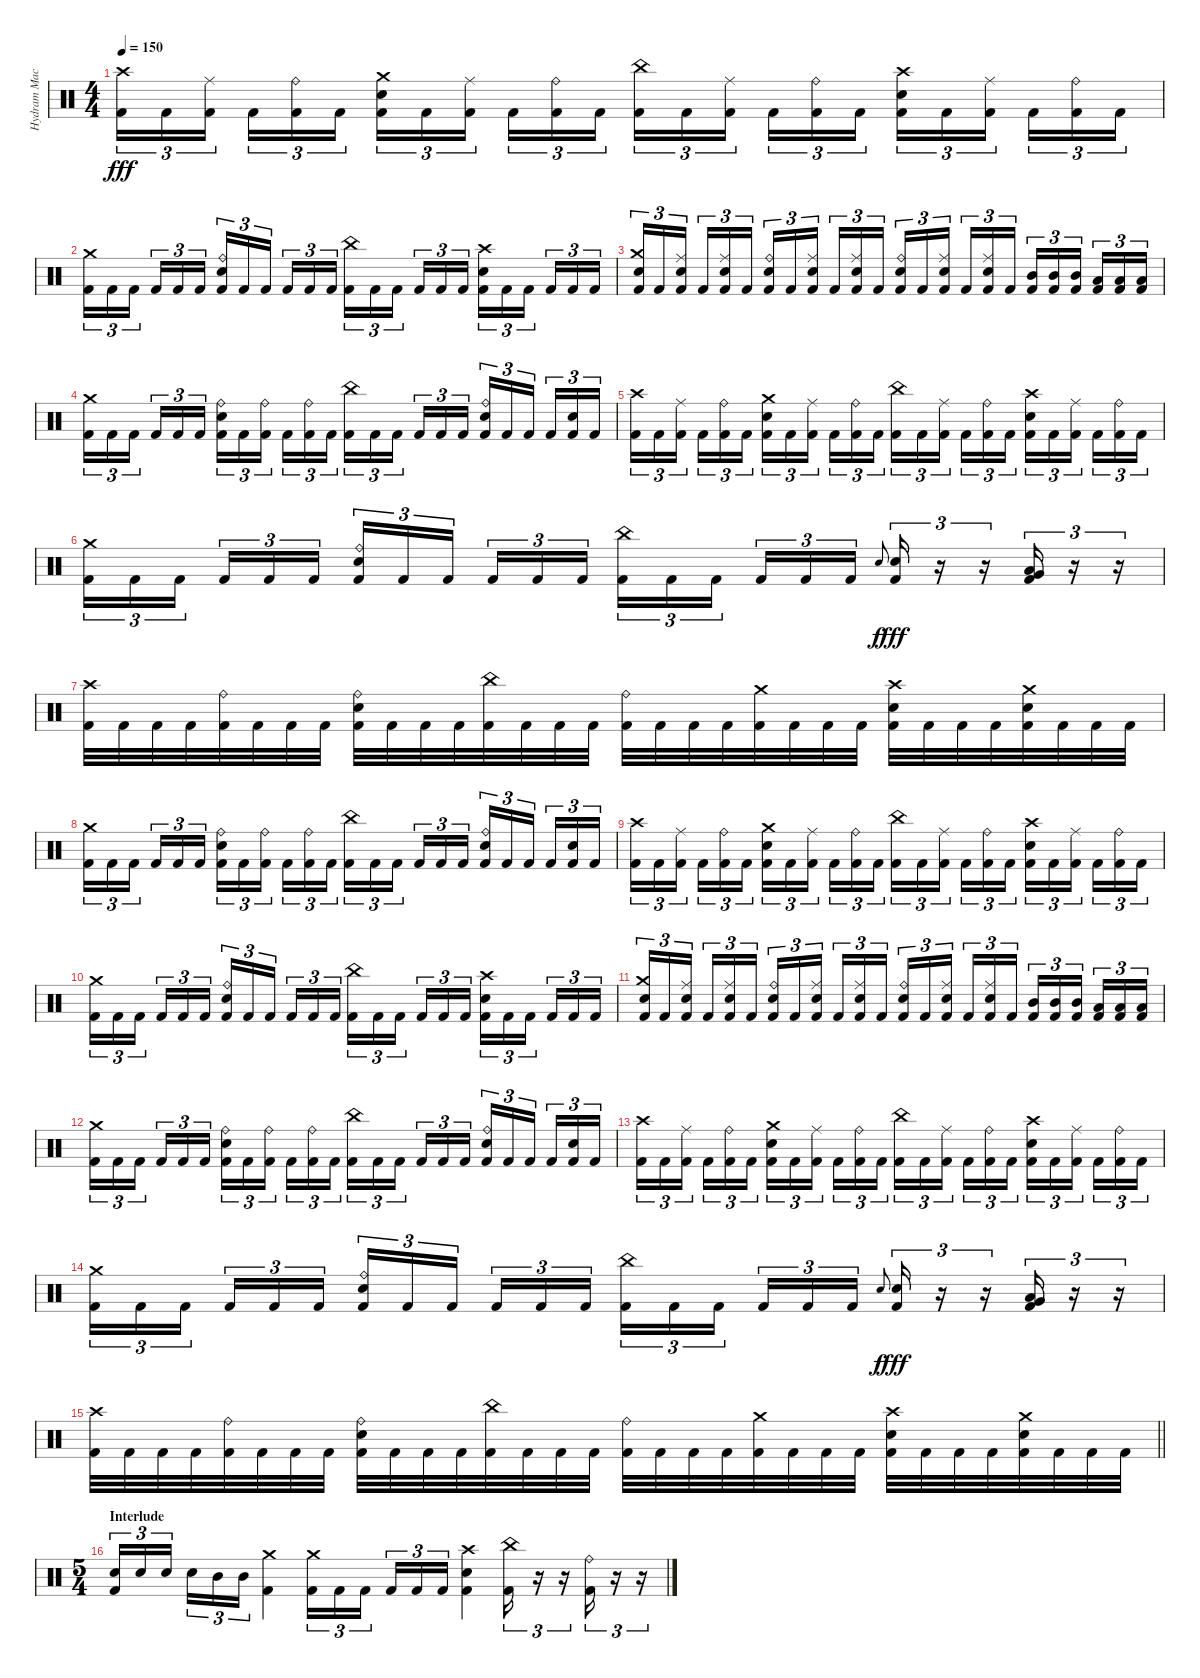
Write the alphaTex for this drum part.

\track ("Hydram Machine" "Hydram Mac") {instrument percussion}
\staff {score}
\articulation defaults
\ts (4 4)
\tempo 150
\clef neutral
\ks c
("Crash high (hit)" "Kick (hit) 2").16{tu (3 2) dy fff} "Kick (hit) 2".16{tu (3 2)} ("Ride (middle)" "Kick (hit) 2").16{tu (3 2) beam splitsecondary} "Kick (hit) 2".16{tu (3 2)} ("Ride (bell)" "Kick (hit) 2").16{tu (3 2)} "Kick (hit) 2".16{tu (3 2)} ("Crash medium (hit)" "Electric Snare (hit)" "Kick (hit) 2").16{tu (3 2)} "Kick (hit) 2".16{tu (3 2)} ("Ride (middle)" "Kick (hit) 2").16{tu (3 2) beam splitsecondary} "Kick (hit) 2".16{tu (3 2)} ("Ride (bell)" "Kick (hit) 2").16{tu (3 2)} "Kick (hit) 2".16{tu (3 2)} ("China (hit)" "Kick (hit) 2").16{tu (3 2)} "Kick (hit) 2".16{tu (3 2)} ("Ride (middle)" "Kick (hit) 2").16{tu (3 2) beam splitsecondary} "Kick (hit) 2".16{tu (3 2)} ("Ride (bell)" "Kick (hit) 2").16{tu (3 2)} "Kick (hit) 2".16{tu (3 2)} ("Crash high (hit)" "Electric Snare (hit)" "Kick (hit) 2").16{tu (3 2)} "Kick (hit) 2".16{tu (3 2)} ("Ride (middle)" "Kick (hit) 2").16{tu (3 2) beam splitsecondary} "Kick (hit) 2".16{tu (3 2)} ("Ride (bell)" "Kick (hit) 2").16{tu (3 2)} "Kick (hit) 2".16{tu (3 2)} |
("Crash medium (hit)" "Kick (hit) 2").16{tu (3 2)} "Kick (hit) 2".16{tu (3 2)} "Kick (hit) 2".16{tu (3 2) beam splitsecondary} "Kick (hit) 2".16{tu (3 2)} "Kick (hit) 2".16{tu (3 2)} "Kick (hit) 2".16{tu (3 2)} ("Ride (bell)" "Electric Snare (hit)" "Kick (hit) 2").16{tu (3 2)} "Kick (hit) 2".16{tu (3 2)} "Kick (hit) 2".16{tu (3 2) beam splitsecondary} "Kick (hit) 2".16{tu (3 2)} "Kick (hit) 2".16{tu (3 2)} "Kick (hit) 2".16{tu (3 2)} ("China (hit)" "Kick (hit) 2").16{tu (3 2)} "Kick (hit) 2".16{tu (3 2)} "Kick (hit) 2".16{tu (3 2) beam splitsecondary} "Kick (hit) 2".16{tu (3 2)} "Kick (hit) 2".16{tu (3 2)} "Kick (hit) 2".16{tu (3 2)} ("Crash high (hit)" "Electric Snare (hit)" "Kick (hit) 2").16{tu (3 2)} "Kick (hit) 2".16{tu (3 2)} "Kick (hit) 2".16{tu (3 2) beam splitsecondary} "Kick (hit) 2".16{tu (3 2)} "Kick (hit) 2".16{tu (3 2)} "Kick (hit) 2".16{tu (3 2)} |
("Crash medium (hit)" "Electric Snare (hit)" "Kick (hit) 2").16{tu (3 2)} "Kick (hit) 2".16{tu (3 2)} ("Ride (middle)" "Electric Snare (hit)" "Kick (hit) 2").16{tu (3 2) beam splitsecondary} "Kick (hit) 2".16{tu (3 2)} ("Ride (middle)" "Electric Snare (hit)" "Kick (hit) 2").16{tu (3 2)} "Kick (hit) 2".16{tu (3 2)} ("Ride (bell)" "Electric Snare (hit)" "Kick (hit) 2").16{tu (3 2)} "Kick (hit) 2".16{tu (3 2)} ("Ride (middle)" "Electric Snare (hit)" "Kick (hit) 2").16{tu (3 2) beam splitsecondary} "Kick (hit) 2".16{tu (3 2)} ("Ride (middle)" "Electric Snare (hit)" "Kick (hit) 2").16{tu (3 2)} "Kick (hit) 2".16{tu (3 2)} ("Ride (bell)" "Electric Snare (hit)" "Kick (hit) 2").16{tu (3 2)} "Kick (hit) 2".16{tu (3 2)} ("Ride (middle)" "Electric Snare (hit)" "Kick (hit) 2").16{tu (3 2) beam splitsecondary} "Kick (hit) 2".16{tu (3 2)} ("Ride (middle)" "Electric Snare (hit)" "Kick (hit) 2").16{tu (3 2)} "Kick (hit) 2".16{tu (3 2)} ("Mid Tom (hit)" "Kick (hit) 2").16{tu (3 2)} ("Mid Tom (hit)" "Kick (hit) 2").16{tu (3 2)} ("Mid Tom (hit)" "Kick (hit) 2").16{tu (3 2) beam splitsecondary} ("Low Tom (hit)" "Kick (hit) 2").16{tu (3 2)} ("Low Tom (hit)" "Kick (hit) 2").16{tu (3 2)} ("Low Tom (hit)" "Kick (hit) 2").16{tu (3 2)} |
("Crash medium (hit)" "Kick (hit) 2").16{tu (3 2)} "Kick (hit) 2".16{tu (3 2)} "Kick (hit) 2".16{tu (3 2) beam splitsecondary} "Kick (hit) 2".16{tu (3 2)} "Kick (hit) 2".16{tu (3 2)} "Kick (hit) 2".16{tu (3 2)} ("Ride (bell)" "Electric Snare (hit)" "Kick (hit) 2").16{tu (3 2)} "Kick (hit) 2".16{tu (3 2)} ("Ride (bell)" "Kick (hit) 2").16{tu (3 2) beam splitsecondary} "Kick (hit) 2".16{tu (3 2)} ("Ride (bell)" "Kick (hit) 2").16{tu (3 2)} "Kick (hit) 2".16{tu (3 2)} ("China (hit)" "Kick (hit) 2").16{tu (3 2)} "Kick (hit) 2".16{tu (3 2)} "Kick (hit) 2".16{tu (3 2) beam splitsecondary} "Kick (hit) 2".16{tu (3 2)} "Kick (hit) 2".16{tu (3 2)} "Kick (hit) 2".16{tu (3 2)} ("Ride (bell)" "Electric Snare (hit)" "Kick (hit) 2").16{tu (3 2)} "Kick (hit) 2".16{tu (3 2)} "Kick (hit) 2".16{tu (3 2) beam splitsecondary} "Kick (hit) 2".16{tu (3 2)} ("Electric Snare (hit)" "Kick (hit) 2").16{tu (3 2)} "Kick (hit) 2".16{tu (3 2)} |
("Crash high (hit)" "Kick (hit) 2").16{tu (3 2)} "Kick (hit) 2".16{tu (3 2)} ("Ride (middle)" "Kick (hit) 2").16{tu (3 2) beam splitsecondary} "Kick (hit) 2".16{tu (3 2)} ("Ride (bell)" "Kick (hit) 2").16{tu (3 2)} "Kick (hit) 2".16{tu (3 2)} ("Crash medium (hit)" "Electric Snare (hit)" "Kick (hit) 2").16{tu (3 2)} "Kick (hit) 2".16{tu (3 2)} ("Ride (middle)" "Kick (hit) 2").16{tu (3 2) beam splitsecondary} "Kick (hit) 2".16{tu (3 2)} ("Ride (bell)" "Kick (hit) 2").16{tu (3 2)} "Kick (hit) 2".16{tu (3 2)} ("China (hit)" "Kick (hit) 2").16{tu (3 2)} "Kick (hit) 2".16{tu (3 2)} ("Ride (middle)" "Kick (hit) 2").16{tu (3 2) beam splitsecondary} "Kick (hit) 2".16{tu (3 2)} ("Ride (bell)" "Kick (hit) 2").16{tu (3 2)} "Kick (hit) 2".16{tu (3 2)} ("Crash high (hit)" "Electric Snare (hit)" "Kick (hit) 2").16{tu (3 2)} "Kick (hit) 2".16{tu (3 2)} ("Ride (middle)" "Kick (hit) 2").16{tu (3 2) beam splitsecondary} "Kick (hit) 2".16{tu (3 2)} ("Ride (bell)" "Kick (hit) 2").16{tu (3 2)} "Kick (hit) 2".16{tu (3 2)} |
("Crash medium (hit)" "Kick (hit) 2").16{tu (3 2)} "Kick (hit) 2".16{tu (3 2)} "Kick (hit) 2".16{tu (3 2) beam splitsecondary} "Kick (hit) 2".16{tu (3 2)} "Kick (hit) 2".16{tu (3 2)} "Kick (hit) 2".16{tu (3 2)} ("Ride (bell)" "Electric Snare (hit)" "Kick (hit) 2").16{tu (3 2)} "Kick (hit) 2".16{tu (3 2)} "Kick (hit) 2".16{tu (3 2) beam splitsecondary} "Kick (hit) 2".16{tu (3 2)} "Kick (hit) 2".16{tu (3 2)} "Kick (hit) 2".16{tu (3 2)} ("China (hit)" "Kick (hit) 2").16{tu (3 2)} "Kick (hit) 2".16{tu (3 2)} "Kick (hit) 2".16{tu (3 2) beam splitsecondary} "Kick (hit) 2".16{tu (3 2)} "Kick (hit) 2".16{tu (3 2)} "Kick (hit) 2".16{tu (3 2)} "Electric Snare (hit)".8{gr onbeat dy f} ("Electric Snare (hit)" "Kick (hit) 2").16{tu (3 2) dy fff} r.16{tu (3 2)} r.16{tu (3 2)} ("Low Tom (hit)" "Very Low Tom (hit)" "Kick (hit) 2").16{tu (3 2)} r.16{tu (3 2)} r.16{tu (3 2)} |
("Crash high (hit)" "Kick (hit) 2").32 "Kick (hit) 2".32 "Kick (hit) 2".32 "Kick (hit) 2".32 ("Ride (bell)" "Kick (hit) 2").32 "Kick (hit) 2".32 "Kick (hit) 2".32 "Kick (hit) 2".32 ("Ride (bell)" "Electric Snare (hit)" "Kick (hit) 2").32 "Kick (hit) 2".32 "Kick (hit) 2".32 "Kick (hit) 2".32 ("China (hit)" "Kick (hit) 2").32 "Kick (hit) 2".32 "Kick (hit) 2".32 "Kick (hit) 2".32 ("Ride (bell)" "Kick (hit) 2").32 "Kick (hit) 2".32 "Kick (hit) 2".32 "Kick (hit) 2".32 ("Crash medium (hit)" "Kick (hit) 2").32 "Kick (hit) 2".32 "Kick (hit) 2".32 "Kick (hit) 2".32 ("Crash high (hit)" "Electric Snare (hit)" "Kick (hit) 2").32 "Kick (hit) 2".32 "Kick (hit) 2".32 "Kick (hit) 2".32 ("Crash medium (hit)" "Electric Snare (hit)" "Kick (hit) 2").32 "Kick (hit) 2".32 "Kick (hit) 2".32 "Kick (hit) 2".32 |
("Crash medium (hit)" "Kick (hit) 2").16{tu (3 2)} "Kick (hit) 2".16{tu (3 2)} "Kick (hit) 2".16{tu (3 2) beam splitsecondary} "Kick (hit) 2".16{tu (3 2)} "Kick (hit) 2".16{tu (3 2)} "Kick (hit) 2".16{tu (3 2)} ("Ride (bell)" "Electric Snare (hit)" "Kick (hit) 2").16{tu (3 2)} "Kick (hit) 2".16{tu (3 2)} ("Ride (bell)" "Kick (hit) 2").16{tu (3 2) beam splitsecondary} "Kick (hit) 2".16{tu (3 2)} ("Ride (bell)" "Kick (hit) 2").16{tu (3 2)} "Kick (hit) 2".16{tu (3 2)} ("China (hit)" "Kick (hit) 2").16{tu (3 2)} "Kick (hit) 2".16{tu (3 2)} "Kick (hit) 2".16{tu (3 2) beam splitsecondary} "Kick (hit) 2".16{tu (3 2)} "Kick (hit) 2".16{tu (3 2)} "Kick (hit) 2".16{tu (3 2)} ("Ride (bell)" "Electric Snare (hit)" "Kick (hit) 2").16{tu (3 2)} "Kick (hit) 2".16{tu (3 2)} "Kick (hit) 2".16{tu (3 2) beam splitsecondary} "Kick (hit) 2".16{tu (3 2)} ("Electric Snare (hit)" "Kick (hit) 2").16{tu (3 2)} "Kick (hit) 2".16{tu (3 2)} |
("Crash high (hit)" "Kick (hit) 2").16{tu (3 2)} "Kick (hit) 2".16{tu (3 2)} ("Ride (middle)" "Kick (hit) 2").16{tu (3 2) beam splitsecondary} "Kick (hit) 2".16{tu (3 2)} ("Ride (bell)" "Kick (hit) 2").16{tu (3 2)} "Kick (hit) 2".16{tu (3 2)} ("Crash medium (hit)" "Electric Snare (hit)" "Kick (hit) 2").16{tu (3 2)} "Kick (hit) 2".16{tu (3 2)} ("Ride (middle)" "Kick (hit) 2").16{tu (3 2) beam splitsecondary} "Kick (hit) 2".16{tu (3 2)} ("Ride (bell)" "Kick (hit) 2").16{tu (3 2)} "Kick (hit) 2".16{tu (3 2)} ("China (hit)" "Kick (hit) 2").16{tu (3 2)} "Kick (hit) 2".16{tu (3 2)} ("Ride (middle)" "Kick (hit) 2").16{tu (3 2) beam splitsecondary} "Kick (hit) 2".16{tu (3 2)} ("Ride (bell)" "Kick (hit) 2").16{tu (3 2)} "Kick (hit) 2".16{tu (3 2)} ("Crash high (hit)" "Electric Snare (hit)" "Kick (hit) 2").16{tu (3 2)} "Kick (hit) 2".16{tu (3 2)} ("Ride (middle)" "Kick (hit) 2").16{tu (3 2) beam splitsecondary} "Kick (hit) 2".16{tu (3 2)} ("Ride (bell)" "Kick (hit) 2").16{tu (3 2)} "Kick (hit) 2".16{tu (3 2)} |
("Crash medium (hit)" "Kick (hit) 2").16{tu (3 2)} "Kick (hit) 2".16{tu (3 2)} "Kick (hit) 2".16{tu (3 2) beam splitsecondary} "Kick (hit) 2".16{tu (3 2)} "Kick (hit) 2".16{tu (3 2)} "Kick (hit) 2".16{tu (3 2)} ("Ride (bell)" "Electric Snare (hit)" "Kick (hit) 2").16{tu (3 2)} "Kick (hit) 2".16{tu (3 2)} "Kick (hit) 2".16{tu (3 2) beam splitsecondary} "Kick (hit) 2".16{tu (3 2)} "Kick (hit) 2".16{tu (3 2)} "Kick (hit) 2".16{tu (3 2)} ("China (hit)" "Kick (hit) 2").16{tu (3 2)} "Kick (hit) 2".16{tu (3 2)} "Kick (hit) 2".16{tu (3 2) beam splitsecondary} "Kick (hit) 2".16{tu (3 2)} "Kick (hit) 2".16{tu (3 2)} "Kick (hit) 2".16{tu (3 2)} ("Crash high (hit)" "Electric Snare (hit)" "Kick (hit) 2").16{tu (3 2)} "Kick (hit) 2".16{tu (3 2)} "Kick (hit) 2".16{tu (3 2) beam splitsecondary} "Kick (hit) 2".16{tu (3 2)} "Kick (hit) 2".16{tu (3 2)} "Kick (hit) 2".16{tu (3 2)} |
("Crash medium (hit)" "Electric Snare (hit)" "Kick (hit) 2").16{tu (3 2)} "Kick (hit) 2".16{tu (3 2)} ("Ride (middle)" "Electric Snare (hit)" "Kick (hit) 2").16{tu (3 2) beam splitsecondary} "Kick (hit) 2".16{tu (3 2)} ("Ride (middle)" "Electric Snare (hit)" "Kick (hit) 2").16{tu (3 2)} "Kick (hit) 2".16{tu (3 2)} ("Ride (bell)" "Electric Snare (hit)" "Kick (hit) 2").16{tu (3 2)} "Kick (hit) 2".16{tu (3 2)} ("Ride (middle)" "Electric Snare (hit)" "Kick (hit) 2").16{tu (3 2) beam splitsecondary} "Kick (hit) 2".16{tu (3 2)} ("Ride (middle)" "Electric Snare (hit)" "Kick (hit) 2").16{tu (3 2)} "Kick (hit) 2".16{tu (3 2)} ("Ride (bell)" "Electric Snare (hit)" "Kick (hit) 2").16{tu (3 2)} "Kick (hit) 2".16{tu (3 2)} ("Ride (middle)" "Electric Snare (hit)" "Kick (hit) 2").16{tu (3 2) beam splitsecondary} "Kick (hit) 2".16{tu (3 2)} ("Ride (middle)" "Electric Snare (hit)" "Kick (hit) 2").16{tu (3 2)} "Kick (hit) 2".16{tu (3 2)} ("Mid Tom (hit)" "Kick (hit) 2").16{tu (3 2)} ("Mid Tom (hit)" "Kick (hit) 2").16{tu (3 2)} ("Mid Tom (hit)" "Kick (hit) 2").16{tu (3 2) beam splitsecondary} ("Low Tom (hit)" "Kick (hit) 2").16{tu (3 2)} ("Low Tom (hit)" "Kick (hit) 2").16{tu (3 2)} ("Low Tom (hit)" "Kick (hit) 2").16{tu (3 2)} |
("Crash medium (hit)" "Kick (hit) 2").16{tu (3 2)} "Kick (hit) 2".16{tu (3 2)} "Kick (hit) 2".16{tu (3 2) beam splitsecondary} "Kick (hit) 2".16{tu (3 2)} "Kick (hit) 2".16{tu (3 2)} "Kick (hit) 2".16{tu (3 2)} ("Ride (bell)" "Electric Snare (hit)" "Kick (hit) 2").16{tu (3 2)} "Kick (hit) 2".16{tu (3 2)} ("Ride (bell)" "Kick (hit) 2").16{tu (3 2) beam splitsecondary} "Kick (hit) 2".16{tu (3 2)} ("Ride (bell)" "Kick (hit) 2").16{tu (3 2)} "Kick (hit) 2".16{tu (3 2)} ("China (hit)" "Kick (hit) 2").16{tu (3 2)} "Kick (hit) 2".16{tu (3 2)} "Kick (hit) 2".16{tu (3 2) beam splitsecondary} "Kick (hit) 2".16{tu (3 2)} "Kick (hit) 2".16{tu (3 2)} "Kick (hit) 2".16{tu (3 2)} ("Ride (bell)" "Electric Snare (hit)" "Kick (hit) 2").16{tu (3 2)} "Kick (hit) 2".16{tu (3 2)} "Kick (hit) 2".16{tu (3 2) beam splitsecondary} "Kick (hit) 2".16{tu (3 2)} ("Electric Snare (hit)" "Kick (hit) 2").16{tu (3 2)} "Kick (hit) 2".16{tu (3 2)} |
("Crash high (hit)" "Kick (hit) 2").16{tu (3 2)} "Kick (hit) 2".16{tu (3 2)} ("Ride (middle)" "Kick (hit) 2").16{tu (3 2) beam splitsecondary} "Kick (hit) 2".16{tu (3 2)} ("Ride (bell)" "Kick (hit) 2").16{tu (3 2)} "Kick (hit) 2".16{tu (3 2)} ("Crash medium (hit)" "Electric Snare (hit)" "Kick (hit) 2").16{tu (3 2)} "Kick (hit) 2".16{tu (3 2)} ("Ride (middle)" "Kick (hit) 2").16{tu (3 2) beam splitsecondary} "Kick (hit) 2".16{tu (3 2)} ("Ride (bell)" "Kick (hit) 2").16{tu (3 2)} "Kick (hit) 2".16{tu (3 2)} ("China (hit)" "Kick (hit) 2").16{tu (3 2)} "Kick (hit) 2".16{tu (3 2)} ("Ride (middle)" "Kick (hit) 2").16{tu (3 2) beam splitsecondary} "Kick (hit) 2".16{tu (3 2)} ("Ride (bell)" "Kick (hit) 2").16{tu (3 2)} "Kick (hit) 2".16{tu (3 2)} ("Crash high (hit)" "Electric Snare (hit)" "Kick (hit) 2").16{tu (3 2)} "Kick (hit) 2".16{tu (3 2)} ("Ride (middle)" "Kick (hit) 2").16{tu (3 2) beam splitsecondary} "Kick (hit) 2".16{tu (3 2)} ("Ride (bell)" "Kick (hit) 2").16{tu (3 2)} "Kick (hit) 2".16{tu (3 2)} |
("Crash medium (hit)" "Kick (hit) 2").16{tu (3 2)} "Kick (hit) 2".16{tu (3 2)} "Kick (hit) 2".16{tu (3 2) beam splitsecondary} "Kick (hit) 2".16{tu (3 2)} "Kick (hit) 2".16{tu (3 2)} "Kick (hit) 2".16{tu (3 2)} ("Ride (bell)" "Electric Snare (hit)" "Kick (hit) 2").16{tu (3 2)} "Kick (hit) 2".16{tu (3 2)} "Kick (hit) 2".16{tu (3 2) beam splitsecondary} "Kick (hit) 2".16{tu (3 2)} "Kick (hit) 2".16{tu (3 2)} "Kick (hit) 2".16{tu (3 2)} ("China (hit)" "Kick (hit) 2").16{tu (3 2)} "Kick (hit) 2".16{tu (3 2)} "Kick (hit) 2".16{tu (3 2) beam splitsecondary} "Kick (hit) 2".16{tu (3 2)} "Kick (hit) 2".16{tu (3 2)} "Kick (hit) 2".16{tu (3 2)} "Electric Snare (hit)".8{gr onbeat dy f} ("Electric Snare (hit)" "Kick (hit) 2").16{tu (3 2) dy fff} r.16{tu (3 2)} r.16{tu (3 2)} ("Low Tom (hit)" "Very Low Tom (hit)" "Kick (hit) 2").16{tu (3 2)} r.16{tu (3 2)} r.16{tu (3 2)} |
\barLineRight lightlight
("Crash high (hit)" "Kick (hit) 2").32 "Kick (hit) 2".32 "Kick (hit) 2".32 "Kick (hit) 2".32 ("Ride (bell)" "Kick (hit) 2").32 "Kick (hit) 2".32 "Kick (hit) 2".32 "Kick (hit) 2".32 ("Ride (bell)" "Electric Snare (hit)" "Kick (hit) 2").32 "Kick (hit) 2".32 "Kick (hit) 2".32 "Kick (hit) 2".32 ("China (hit)" "Kick (hit) 2").32 "Kick (hit) 2".32 "Kick (hit) 2".32 "Kick (hit) 2".32 ("Ride (bell)" "Kick (hit) 2").32 "Kick (hit) 2".32 "Kick (hit) 2".32 "Kick (hit) 2".32 ("Crash medium (hit)" "Kick (hit) 2").32 "Kick (hit) 2".32 "Kick (hit) 2".32 "Kick (hit) 2".32 ("Crash high (hit)" "Electric Snare (hit)" "Kick (hit) 2").32 "Kick (hit) 2".32 "Kick (hit) 2".32 "Kick (hit) 2".32 ("Crash medium (hit)" "Electric Snare (hit)" "Kick (hit) 2").32 "Kick (hit) 2".32 "Kick (hit) 2".32 "Kick (hit) 2".32 |
\ts (5 4)
\section ("" "Interlude")
("Electric Snare (hit)" "Kick (hit) 2").16{tu (3 2)} "Electric Snare (hit)".16{tu (3 2)} "Electric Snare (hit)".16{tu (3 2) beam splitsecondary} "Electric Snare (hit)".16{tu (3 2)} "Mid Tom (hit)".16{tu (3 2)} "Mid Tom (hit)".16{tu (3 2)} ("Crash medium (hit)" "Kick (hit) 2").4 ("Crash medium (hit)" "Kick (hit) 2").16{tu (3 2)} "Kick (hit) 2".16{tu (3 2)} "Kick (hit) 2".16{tu (3 2) beam splitsecondary} "Kick (hit) 2".16{tu (3 2)} "Kick (hit) 2".16{tu (3 2)} "Kick (hit) 2".16{tu (3 2)} ("Crash high (hit)" "Electric Snare (hit)" "Kick (hit) 2").4 ("China (hit)" "Kick (hit) 2").16{tu (3 2)} r.16{tu (3 2)} r.16{tu (3 2)} ("Ride (bell)" "Kick (hit) 2").16{tu (3 2)} r.16{tu (3 2)} r.16{tu (3 2)}
